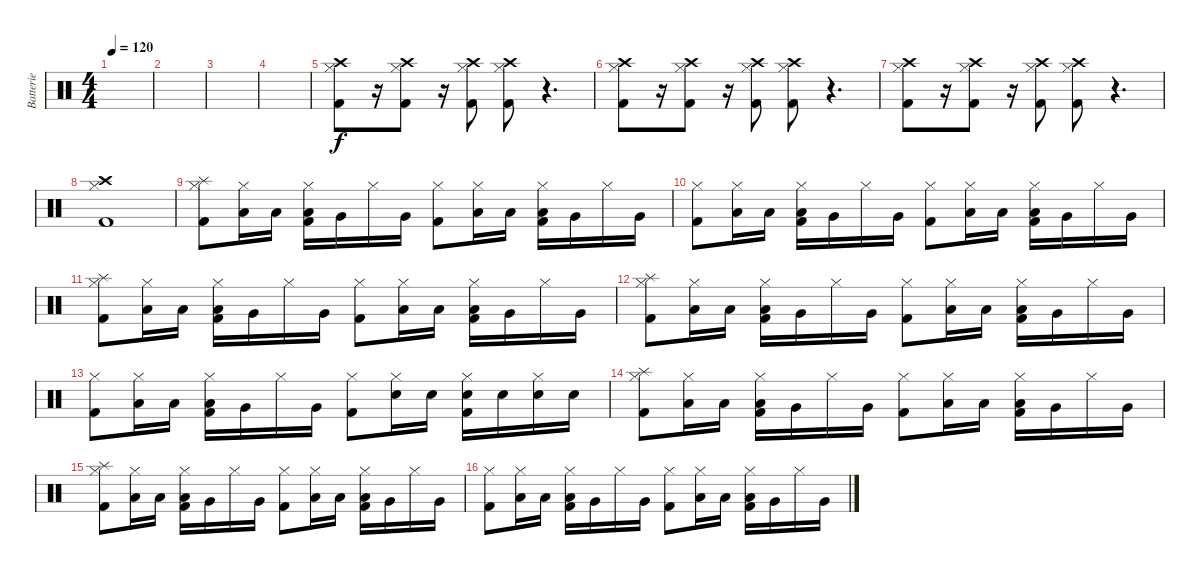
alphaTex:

\track ("Batterie" "Batterie") {instrument percussion}
\staff {score}
\articulation defaults
\ts (4 4)
\tempo 120
\clef neutral
\ks c
|
|
|
|
("Hi-Hat (closed)" "Crash high (hit)" "Kick (hit) 2").8 r.16 ("Hi-Hat (closed)" "Crash high (hit)" "Kick (hit) 2").8 r.16 ("Hi-Hat (closed)" "Crash high (hit)" "Kick (hit) 2").8 ("Hi-Hat (closed)" "Crash high (hit)" "Kick (hit) 2").8 r.4{d} |
("Hi-Hat (closed)" "Crash high (hit)" "Kick (hit) 2").8 r.16 ("Hi-Hat (closed)" "Crash high (hit)" "Kick (hit) 2").8 r.16 ("Hi-Hat (closed)" "Crash high (hit)" "Kick (hit) 2").8 ("Hi-Hat (closed)" "Crash high (hit)" "Kick (hit) 2").8 r.4{d} |
("Hi-Hat (closed)" "Crash high (hit)" "Kick (hit) 2").8 r.16 ("Hi-Hat (closed)" "Crash high (hit)" "Kick (hit) 2").8 r.16 ("Hi-Hat (closed)" "Crash high (hit)" "Kick (hit) 2").8 ("Hi-Hat (closed)" "Crash high (hit)" "Kick (hit) 2").8 r.4{d} |
("Crash high (hit)" "Hi-Hat (closed)" "Kick (hit) 2").1 |
("Splash (hit)" "Hi-Hat (closed)" "Kick (hit) 2").8 ("Hi-Hat (closed)" "Low Tom (hit)").16 "Low Tom (hit)".16 ("Hi-Hat (closed)" "Low Tom (hit)" "Kick (hit) 2").16 "Very Low Tom (hit)".16 "Hi-Hat (closed)".16 "Very Low Tom (hit)".16 ("Hi-Hat (closed)" "Kick (hit) 2").8 ("Hi-Hat (closed)" "Low Tom (hit)").16 "Low Tom (hit)".16 ("Hi-Hat (closed)" "Low Tom (hit)" "Kick (hit) 2").16 "Very Low Tom (hit)".16 "Hi-Hat (closed)".16 "Very Low Tom (hit)".16 |
("Hi-Hat (closed)" "Kick (hit) 2").8 ("Hi-Hat (closed)" "Low Tom (hit)").16 "Low Tom (hit)".16 ("Hi-Hat (closed)" "Low Tom (hit)" "Kick (hit) 2").16 "Very Low Tom (hit)".16 "Hi-Hat (closed)".16 "Very Low Tom (hit)".16 ("Hi-Hat (closed)" "Kick (hit) 2").8 ("Hi-Hat (closed)" "Low Tom (hit)").16 "Low Tom (hit)".16 ("Hi-Hat (closed)" "Low Tom (hit)" "Kick (hit) 2").16 "Very Low Tom (hit)".16 "Hi-Hat (closed)".16 "Very Low Tom (hit)".16 |
("Splash (hit)" "Hi-Hat (closed)" "Kick (hit) 2").8 ("Hi-Hat (closed)" "Low Tom (hit)").16 "Low Tom (hit)".16 ("Hi-Hat (closed)" "Low Tom (hit)" "Kick (hit) 2").16 "Very Low Tom (hit)".16 "Hi-Hat (closed)".16 "Very Low Tom (hit)".16 ("Hi-Hat (closed)" "Kick (hit) 2").8 ("Hi-Hat (closed)" "Low Tom (hit)").16 "Low Tom (hit)".16 ("Hi-Hat (closed)" "Low Tom (hit)" "Kick (hit) 2").16 "Very Low Tom (hit)".16 "Hi-Hat (closed)".16 "Very Low Tom (hit)".16 |
("Splash (hit)" "Hi-Hat (closed)" "Kick (hit) 2").8 ("Hi-Hat (closed)" "Low Tom (hit)").16 "Low Tom (hit)".16 ("Hi-Hat (closed)" "Low Tom (hit)" "Kick (hit) 2").16 "Very Low Tom (hit)".16 "Hi-Hat (closed)".16 "Very Low Tom (hit)".16 ("Hi-Hat (closed)" "Kick (hit) 2").8 ("Hi-Hat (closed)" "Low Tom (hit)").16 "Low Tom (hit)".16 ("Hi-Hat (closed)" "Low Tom (hit)" "Kick (hit) 2").16 "Very Low Tom (hit)".16 "Hi-Hat (closed)".16 "Very Low Tom (hit)".16 |
("Hi-Hat (closed)" "Kick (hit) 2").8 ("Hi-Hat (closed)" "Low Tom (hit)").16 "Low Tom (hit)".16 ("Hi-Hat (closed)" "Low Tom (hit)" "Kick (hit) 2").16 "Very Low Tom (hit)".16 "Hi-Hat (closed)".16 "Very Low Tom (hit)".16 ("Hi-Hat (closed)" "Kick (hit) 2").8 ("Hi-Hat (closed)" "Snare (hit) 2").16 "Snare (hit) 2".16 ("Hi-Hat (closed)" "Snare (hit) 2" "Kick (hit) 2").16 "Snare (hit) 2".16 ("Hi-Hat (closed)" "Snare (hit) 2").16 "Snare (hit) 2".16 |
("Splash (hit)" "Hi-Hat (closed)" "Kick (hit) 2").8 ("Hi-Hat (closed)" "Low Tom (hit)").16 "Low Tom (hit)".16 ("Hi-Hat (closed)" "Low Tom (hit)" "Kick (hit) 2").16 "Very Low Tom (hit)".16 "Hi-Hat (closed)".16 "Very Low Tom (hit)".16 ("Hi-Hat (closed)" "Kick (hit) 2").8 ("Hi-Hat (closed)" "Low Tom (hit)").16 "Low Tom (hit)".16 ("Hi-Hat (closed)" "Low Tom (hit)" "Kick (hit) 2").16 "Very Low Tom (hit)".16 "Hi-Hat (closed)".16 "Very Low Tom (hit)".16 |
("Splash (hit)" "Hi-Hat (closed)" "Kick (hit) 2").8 ("Hi-Hat (closed)" "Low Tom (hit)").16 "Low Tom (hit)".16 ("Hi-Hat (closed)" "Low Tom (hit)" "Kick (hit) 2").16 "Very Low Tom (hit)".16 "Hi-Hat (closed)".16 "Very Low Tom (hit)".16 ("Hi-Hat (closed)" "Kick (hit) 2").8 ("Hi-Hat (closed)" "Low Tom (hit)").16 "Low Tom (hit)".16 ("Hi-Hat (closed)" "Low Tom (hit)" "Kick (hit) 2").16 "Very Low Tom (hit)".16 "Hi-Hat (closed)".16 "Very Low Tom (hit)".16 |
("Hi-Hat (closed)" "Kick (hit) 2").8 ("Hi-Hat (closed)" "Low Tom (hit)").16 "Low Tom (hit)".16 ("Hi-Hat (closed)" "Low Tom (hit)" "Kick (hit) 2").16 "Very Low Tom (hit)".16 "Hi-Hat (closed)".16 "Very Low Tom (hit)".16 ("Hi-Hat (closed)" "Kick (hit) 2").8 ("Hi-Hat (closed)" "Low Tom (hit)").16 "Low Tom (hit)".16 ("Hi-Hat (closed)" "Low Tom (hit)" "Kick (hit) 2").16 "Very Low Tom (hit)".16 "Hi-Hat (closed)".16 "Very Low Tom (hit)".16
